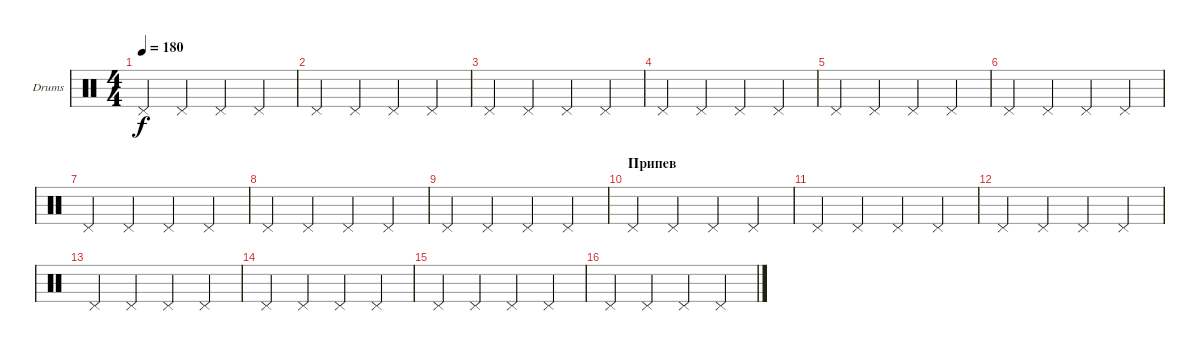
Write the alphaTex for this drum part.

\defaultSystemsLayout 4
\bracketExtendMode groupsimilarinstruments
\firstSystemTrackNameOrientation horizontal
\otherSystemsTrackNameOrientation horizontal
\track ("Drumkit" "Drums") {instrument percussion}
\staff {score}
\articulation defaults
\ts (4 4)
\tempo 180
\clef neutral
\ks c "Pedal Hi-Hat (hit)".4{dy f} "Pedal Hi-Hat (hit)".4 "Pedal Hi-Hat (hit)".4 "Pedal Hi-Hat (hit)".4
|
"Pedal Hi-Hat (hit)".4 "Pedal Hi-Hat (hit)".4 "Pedal Hi-Hat (hit)".4 "Pedal Hi-Hat (hit)".4 |
"Pedal Hi-Hat (hit)".4 "Pedal Hi-Hat (hit)".4 "Pedal Hi-Hat (hit)".4 "Pedal Hi-Hat (hit)".4 |
"Pedal Hi-Hat (hit)".4 "Pedal Hi-Hat (hit)".4 "Pedal Hi-Hat (hit)".4 "Pedal Hi-Hat (hit)".4 |
"Pedal Hi-Hat (hit)".4 "Pedal Hi-Hat (hit)".4 "Pedal Hi-Hat (hit)".4 "Pedal Hi-Hat (hit)".4 |
"Pedal Hi-Hat (hit)".4 "Pedal Hi-Hat (hit)".4 "Pedal Hi-Hat (hit)".4 "Pedal Hi-Hat (hit)".4 |
"Pedal Hi-Hat (hit)".4 "Pedal Hi-Hat (hit)".4 "Pedal Hi-Hat (hit)".4 "Pedal Hi-Hat (hit)".4 |
"Pedal Hi-Hat (hit)".4 "Pedal Hi-Hat (hit)".4 "Pedal Hi-Hat (hit)".4 "Pedal Hi-Hat (hit)".4 |
"Pedal Hi-Hat (hit)".4 "Pedal Hi-Hat (hit)".4 "Pedal Hi-Hat (hit)".4 "Pedal Hi-Hat (hit)".4 |
\section ("" "Припев")
"Pedal Hi-Hat (hit)".4 "Pedal Hi-Hat (hit)".4 "Pedal Hi-Hat (hit)".4 "Pedal Hi-Hat (hit)".4 |
"Pedal Hi-Hat (hit)".4 "Pedal Hi-Hat (hit)".4 "Pedal Hi-Hat (hit)".4 "Pedal Hi-Hat (hit)".4 |
"Pedal Hi-Hat (hit)".4 "Pedal Hi-Hat (hit)".4 "Pedal Hi-Hat (hit)".4 "Pedal Hi-Hat (hit)".4 |
"Pedal Hi-Hat (hit)".4 "Pedal Hi-Hat (hit)".4 "Pedal Hi-Hat (hit)".4 "Pedal Hi-Hat (hit)".4 |
"Pedal Hi-Hat (hit)".4 "Pedal Hi-Hat (hit)".4 "Pedal Hi-Hat (hit)".4 "Pedal Hi-Hat (hit)".4 |
"Pedal Hi-Hat (hit)".4 "Pedal Hi-Hat (hit)".4 "Pedal Hi-Hat (hit)".4 "Pedal Hi-Hat (hit)".4 |
"Pedal Hi-Hat (hit)".4 "Pedal Hi-Hat (hit)".4 "Pedal Hi-Hat (hit)".4 "Pedal Hi-Hat (hit)".4
